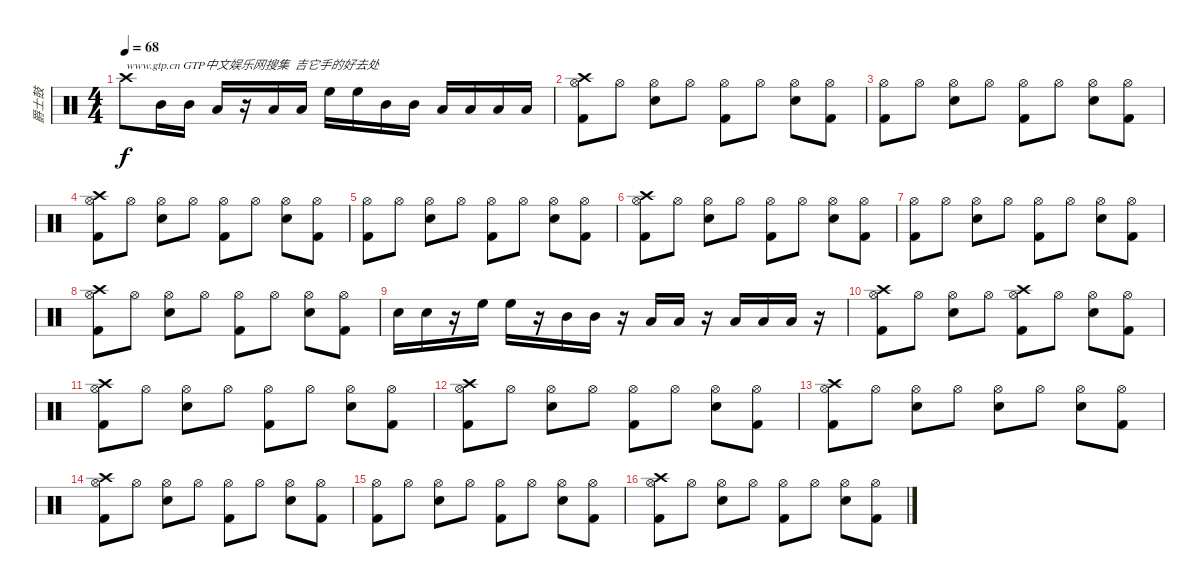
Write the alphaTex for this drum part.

\track ("爵士鼓" "爵士鼓") {instrument percussion}
\staff {score}
\articulation defaults
\ts (4 4)
\tempo 68
\clef neutral
\ks c "Crash high (hit)".8{txt "www.gtp.cn GTP中文娱乐网搜集  吉它手的好去处" dy f} "Mid Tom (hit)".16 "Mid Tom (hit)".16 "Low Tom (hit)".16
r.16 "Low Floor Tom (hit)".16 "Low Floor Tom (hit)".16 "High Floor Tom (hit)".16 "High Floor Tom (hit)".16 "Mid Tom (hit)".16 "Mid Tom (hit)".16 "Low Tom (hit)".16 "Low Tom (hit)".16 "Low Floor Tom (hit)".16 "Low Floor Tom (hit)".16 |
("Crash high (hit)" "Kick (hit) 2" "Hi-Hat (open)").8 "Hi-Hat (open)".8 ("Snare (hit) 2" "Hi-Hat (open)").8 "Hi-Hat (open)".8 ("Kick (hit) 2" "Hi-Hat (open)").8 "Hi-Hat (open)".8 ("Snare (hit) 2" "Hi-Hat (open)").8 ("Kick (hit) 2" "Hi-Hat (open)").8 |
("Kick (hit) 2" "Hi-Hat (open)").8 "Hi-Hat (open)".8 ("Snare (hit) 2" "Hi-Hat (open)").8 "Hi-Hat (open)".8 ("Kick (hit) 2" "Hi-Hat (open)").8 "Hi-Hat (open)".8 ("Snare (hit) 2" "Hi-Hat (open)").8 ("Kick (hit) 2" "Hi-Hat (open)").8 |
("Crash high (hit)" "Kick (hit) 2" "Hi-Hat (open)").8 "Hi-Hat (open)".8 ("Snare (hit) 2" "Hi-Hat (open)").8 "Hi-Hat (open)".8 ("Kick (hit) 2" "Hi-Hat (open)").8 "Hi-Hat (open)".8 ("Snare (hit) 2" "Hi-Hat (open)").8 ("Kick (hit) 2" "Hi-Hat (open)").8 |
("Kick (hit) 2" "Hi-Hat (open)").8 "Hi-Hat (open)".8 ("Snare (hit) 2" "Hi-Hat (open)").8 "Hi-Hat (open)".8 ("Kick (hit) 2" "Hi-Hat (open)").8 "Hi-Hat (open)".8 ("Snare (hit) 2" "Hi-Hat (open)").8 ("Kick (hit) 2" "Hi-Hat (open)").8 |
("Crash high (hit)" "Kick (hit) 2" "Hi-Hat (open)").8 "Hi-Hat (open)".8 ("Snare (hit) 2" "Hi-Hat (open)").8 "Hi-Hat (open)".8 ("Kick (hit) 2" "Hi-Hat (open)").8 "Hi-Hat (open)".8 ("Snare (hit) 2" "Hi-Hat (open)").8 ("Kick (hit) 2" "Hi-Hat (open)").8 |
("Kick (hit) 2" "Hi-Hat (open)").8 "Hi-Hat (open)".8 ("Snare (hit) 2" "Hi-Hat (open)").8 "Hi-Hat (open)".8 ("Kick (hit) 2" "Hi-Hat (open)").8 "Hi-Hat (open)".8 ("Snare (hit) 2" "Hi-Hat (open)").8 ("Kick (hit) 2" "Hi-Hat (open)").8 |
("Crash high (hit)" "Kick (hit) 2" "Hi-Hat (open)").8 "Hi-Hat (open)".8 ("Snare (hit) 2" "Hi-Hat (open)").8 "Hi-Hat (open)".8 ("Kick (hit) 2" "Hi-Hat (open)").8 "Hi-Hat (open)".8 ("Snare (hit) 2" "Hi-Hat (open)").8 ("Kick (hit) 2" "Hi-Hat (open)").8 |
"Snare (hit) 2".16 "Snare (hit) 2".16 r.16 "High Floor Tom (hit)".16 "High Floor Tom (hit)".16 r.16 "Mid Tom (hit)".16 "Mid Tom (hit)".16 r.16 "Low Tom (hit)".16 "Low Tom (hit)".16 r.16 "Low Floor Tom (hit)".16 "Low Floor Tom (hit)".16 "Low Floor Tom (hit)".16 r.16 |
("Crash high (hit)" "Kick (hit) 2" "Hi-Hat (open)").8 "Hi-Hat (open)".8 ("Snare (hit) 2" "Hi-Hat (open)").8 "Hi-Hat (open)".8 ("Crash high (hit)" "Kick (hit) 2" "Hi-Hat (open)").8 "Hi-Hat (open)".8 ("Snare (hit) 2" "Hi-Hat (open)").8 ("Kick (hit) 2" "Hi-Hat (open)").8 |
("Crash high (hit)" "Kick (hit) 2" "Hi-Hat (open)").8 "Hi-Hat (open)".8 ("Snare (hit) 2" "Hi-Hat (open)").8 "Hi-Hat (open)".8 ("Kick (hit) 2" "Hi-Hat (open)").8 "Hi-Hat (open)".8 ("Snare (hit) 2" "Hi-Hat (open)").8 ("Kick (hit) 2" "Hi-Hat (open)").8 |
("Crash high (hit)" "Kick (hit) 2" "Hi-Hat (open)").8 "Hi-Hat (open)".8 ("Snare (hit) 2" "Hi-Hat (open)").8 "Hi-Hat (open)".8 ("Kick (hit) 2" "Hi-Hat (open)").8 "Hi-Hat (open)".8 ("Snare (hit) 2" "Hi-Hat (open)").8 ("Kick (hit) 2" "Hi-Hat (open)").8 |
("Crash high (hit)" "Kick (hit) 2" "Hi-Hat (open)").8 "Hi-Hat (open)".8 ("Snare (hit) 2" "Hi-Hat (open)").8 "Hi-Hat (open)".8 ("Snare (hit) 2" "Hi-Hat (open)").8 "Hi-Hat (open)".8 ("Snare (hit) 2" "Hi-Hat (open)").8 ("Kick (hit) 2" "Hi-Hat (open)").8 |
("Crash high (hit)" "Kick (hit) 2" "Hi-Hat (open)").8 "Hi-Hat (open)".8 ("Snare (hit) 2" "Hi-Hat (open)").8 "Hi-Hat (open)".8 ("Kick (hit) 2" "Hi-Hat (open)").8 "Hi-Hat (open)".8 ("Snare (hit) 2" "Hi-Hat (open)").8 ("Kick (hit) 2" "Hi-Hat (open)").8 |
("Kick (hit) 2" "Hi-Hat (open)").8 "Hi-Hat (open)".8 ("Snare (hit) 2" "Hi-Hat (open)").8 "Hi-Hat (open)".8 ("Kick (hit) 2" "Hi-Hat (open)").8 "Hi-Hat (open)".8 ("Snare (hit) 2" "Hi-Hat (open)").8 ("Kick (hit) 2" "Hi-Hat (open)").8 |
("Crash high (hit)" "Kick (hit) 2" "Hi-Hat (open)").8 "Hi-Hat (open)".8 ("Snare (hit) 2" "Hi-Hat (open)").8 "Hi-Hat (open)".8 ("Kick (hit) 2" "Hi-Hat (open)").8 "Hi-Hat (open)".8 ("Snare (hit) 2" "Hi-Hat (open)").8 ("Kick (hit) 2" "Hi-Hat (open)").8
